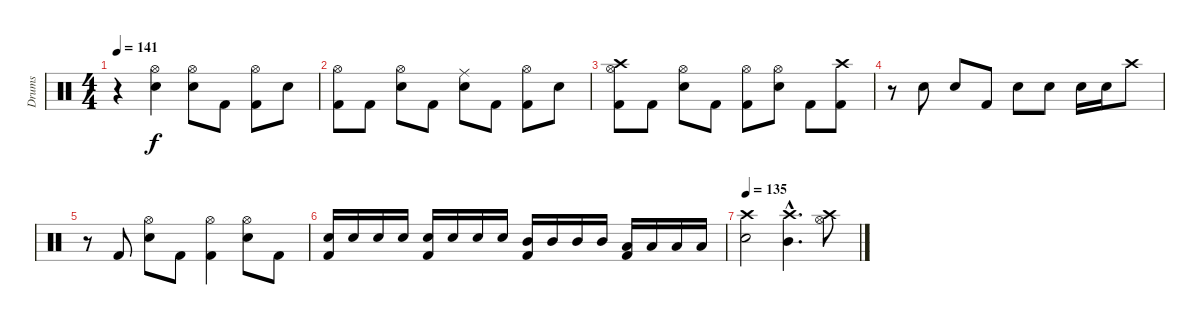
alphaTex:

\track ("Drums" "Drums") {instrument percussion}
\staff {score}
\articulation defaults
\ts (4 4)
\tempo 141
\clef neutral
\ks c
r.4{dy f} ("Hi-Hat (open)" "Electric Snare (hit)").4 ("Hi-Hat (open)" "Electric Snare (hit)").8 "Kick (hit) 2".8 ("Hi-Hat (open)" "Kick (hit) 2").8 "Electric Snare (hit)".8 |
("Hi-Hat (open)" "Kick (hit) 2").8 "Kick (hit) 2".8 ("Hi-Hat (open)" "Electric Snare (hit)").8 "Kick (hit) 2".8 ("Ride (middle)" "Electric Snare (hit)").8 "Kick (hit) 2".8 ("Hi-Hat (open)" "Kick (hit) 2").8 "Electric Snare (hit)".8 |
("Crash high (hit)" "Hi-Hat (open)" "Kick (hit) 2").8 "Kick (hit) 2".8 ("Hi-Hat (open)" "Electric Snare (hit)").8 "Kick (hit) 2".8 ("Hi-Hat (open)" "Kick (hit) 2").8 ("Hi-Hat (open)" "Electric Snare (hit)").8 "Kick (hit) 2".8 ("Crash high (hit)" "Kick (hit) 2").8 |
r.8 "Electric Snare (hit)".8 "Electric Snare (hit)".8 "Kick (hit) 2".8 "Electric Snare (hit)".8 "Electric Snare (hit)".8 "Electric Snare (hit)".16 "Electric Snare (hit)".16 "Crash high (hit)".8 |
r.8 "Kick (hit) 2".8 ("Hi-Hat (open)" "Electric Snare (hit)").8 "Kick (hit) 2".8 ("Hi-Hat (open)" "Kick (hit) 2").4 ("Hi-Hat (open)" "Electric Snare (hit)").8 "Kick (hit) 2".8 |
("Electric Snare (hit)" "Kick (hit) 2").16 "Electric Snare (hit)".16 "Electric Snare (hit)".16 "Electric Snare (hit)".16 ("Electric Snare (hit)" "Kick (hit) 2").16 "Electric Snare (hit)".16 "Electric Snare (hit)".16 "Electric Snare (hit)".16 ("Mid Tom (hit)" "Kick (hit) 2").16 "Mid Tom (hit)".16 "Mid Tom (hit)".16 "Mid Tom (hit)".16 ("Low Tom (hit)" "Kick (hit) 2").16 "Low Tom (hit)".16 "Low Tom (hit)".16 "Low Tom (hit)".16 |
\tempo 135
("Crash high (hit)" "Electric Snare (hit)").2 ("Crash high (hit)"{hac} "Mid Tom (hit)"{hac}).4{d} ("Crash high (hit)" "Hi-Hat (open)").8
